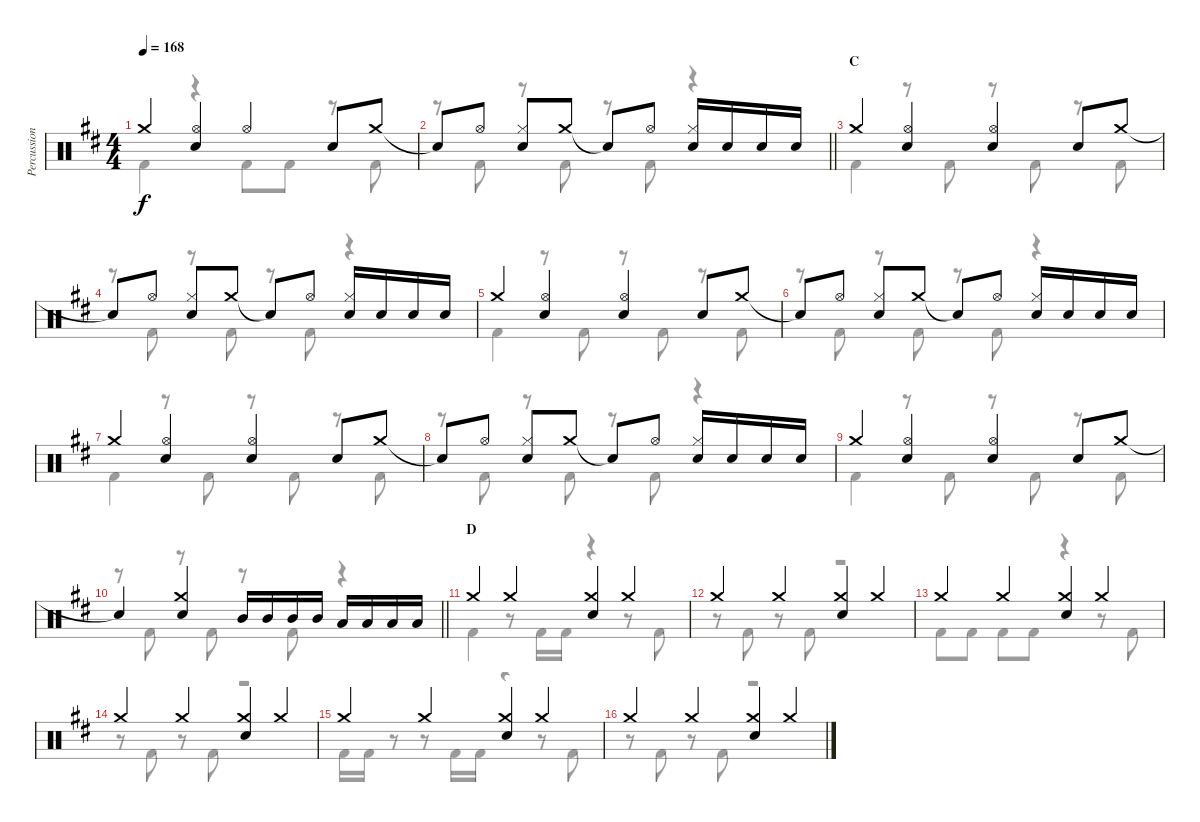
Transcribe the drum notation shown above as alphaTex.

\track ("Percussion" "Percussion") {instrument percussion}
\staff {score}
\articulation defaults
\voice
\ts (4 4)
\tempo 168
\clef neutral
\ks d "Crash medium (hit)".4{dy f}
("Hi-Hat (open)" "Snare (hit) 2").4 "Hi-Hat (open)".4 "Snare (hit) 2".8 "Crash medium (hit)".8 |
\barLineRight lightlight "Snare (hit)"{t}.8 "Hi-Hat (open)".8
("Hi-Hat (closed)" "Snare (hit) 2").8 "Crash medium (hit)".8 "Snare (hit)"{t}.8 "Hi-Hat (open)".8 ("Hi-Hat (closed)" "Snare (hit) 2").16 "Snare (hit) 2".16 "Snare (hit) 2".16 "Snare (hit) 2".16 |
\section ("" "C")
"Crash medium (hit)".4 ("Hi-Hat (open)" "Snare (hit) 2").4 ("Hi-Hat (open)" "Snare (hit) 2").4 "Snare (hit) 2".8 "Crash medium (hit)".8 |
"Snare (hit)"{t}.8 "Hi-Hat (open)".8 ("Hi-Hat (closed)" "Snare (hit) 2").8 "Crash medium (hit)".8 "Snare (hit)"{t}.8 "Hi-Hat (open)".8 ("Hi-Hat (closed)" "Snare (hit) 2").16 "Snare (hit) 2".16 "Snare (hit) 2".16 "Snare (hit) 2".16 |
"Crash medium (hit)".4 ("Hi-Hat (open)" "Snare (hit) 2").4 ("Hi-Hat (open)" "Snare (hit) 2").4 "Snare (hit) 2".8 "Crash medium (hit)".8 |
"Snare (hit)"{t}.8 "Hi-Hat (open)".8 ("Hi-Hat (closed)" "Snare (hit) 2").8 "Crash medium (hit)".8 "Snare (hit)"{t}.8 "Hi-Hat (open)".8 ("Hi-Hat (closed)" "Snare (hit) 2").16 "Snare (hit) 2".16 "Snare (hit) 2".16 "Snare (hit) 2".16 |
"Crash medium (hit)".4 ("Hi-Hat (open)" "Snare (hit) 2").4 ("Hi-Hat (open)" "Snare (hit) 2").4 "Snare (hit) 2".8 "Crash medium (hit)".8 |
"Snare (hit)"{t}.8 "Hi-Hat (open)".8 ("Hi-Hat (closed)" "Snare (hit) 2").8 "Crash medium (hit)".8 "Snare (hit)"{t}.8 "Hi-Hat (open)".8 ("Hi-Hat (closed)" "Snare (hit) 2").16 "Snare (hit) 2".16 "Snare (hit) 2".16 "Snare (hit) 2".16 |
"Crash medium (hit)".4 ("Hi-Hat (open)" "Snare (hit) 2").4 ("Hi-Hat (open)" "Snare (hit) 2").4 "Snare (hit) 2".8 "Crash medium (hit)".8 |
\barLineRight lightlight "Snare (hit)"{t}.4
("Crash medium (hit)" "Snare (hit) 2").4 "Mid Tom (hit)".16 "Mid Tom (hit)".16 "Mid Tom (hit)".16 "Mid Tom (hit)".16 "Low Tom (hit)".16 "Low Tom (hit)".16 "Low Tom (hit)".16 "Low Tom (hit)".16 |
\section ("" "D")
"Crash medium (hit)".4 "Crash medium (hit)".4 ("Crash medium (hit)" "Snare (hit) 2").4 "Crash medium (hit)".4 |
"Crash medium (hit)".4 "Crash medium (hit)".4 ("Crash medium (hit)" "Snare (hit) 2").4 "Crash medium (hit)".4 |
"Crash medium (hit)".4 "Crash medium (hit)".4 ("Crash medium (hit)" "Snare (hit) 2").4 "Crash medium (hit)".4 |
"Crash medium (hit)".4 "Crash medium (hit)".4 ("Crash medium (hit)" "Snare (hit) 2").4 "Crash medium (hit)".4 |
"Crash medium (hit)".4 "Crash medium (hit)".4 ("Crash medium (hit)" "Snare (hit) 2").4 "Crash medium (hit)".4 |
"Crash medium (hit)".4 "Crash medium (hit)".4 ("Crash medium (hit)" "Snare (hit) 2").4 "Crash medium (hit)".4
\voice
\clef neutral
\ottava regular
\simile none
\ks d "Kick (hit) 2".4{dy f}
r.4 "Kick (hit) 2".8 "Kick (hit) 2".8 r.8 "Kick (hit) 2".8 |
\barLineRight lightlight
r.8 "Kick (hit) 2".8 r.8 "Kick (hit) 2".8 r.8 "Kick (hit) 2".8 r.4 |
"Kick (hit) 2".4 r.8 "Kick (hit) 2".8 r.8 "Kick (hit) 2".8 r.8 "Kick (hit) 2".8 |
r.8 "Kick (hit) 2".8 r.8 "Kick (hit) 2".8 r.8 "Kick (hit) 2".8 r.4 |
"Kick (hit) 2".4 r.8 "Kick (hit) 2".8 r.8 "Kick (hit) 2".8 r.8 "Kick (hit) 2".8 |
r.8 "Kick (hit) 2".8 r.8 "Kick (hit) 2".8 r.8 "Kick (hit) 2".8 r.4 |
"Kick (hit) 2".4 r.8 "Kick (hit) 2".8 r.8 "Kick (hit) 2".8 r.8 "Kick (hit) 2".8 |
r.8 "Kick (hit) 2".8 r.8 "Kick (hit) 2".8 r.8 "Kick (hit) 2".8 r.4 |
"Kick (hit) 2".4 r.8 "Kick (hit) 2".8 r.8 "Kick (hit) 2".8 r.8 "Kick (hit) 2".8 |
\barLineRight lightlight
r.8 "Kick (hit) 2".8 r.8 "Kick (hit) 2".8 r.8 "Kick (hit) 2".8 r.4 |
"Kick (hit) 2".4 r.8 "Kick (hit) 2".16 "Kick (hit) 2".16 r.4 r.8 "Kick (hit) 2".8 |
r.8 "Kick (hit) 2".8 r.8 "Kick (hit) 2".8 r.2 |
"Kick (hit) 2".8 "Kick (hit) 2".8 "Kick (hit) 2".8 "Kick (hit) 2".8 r.4 r.8 "Kick (hit) 2".8 |
r.8 "Kick (hit) 2".8 r.8 "Kick (hit) 2".8 r.2 |
"Kick (hit) 2".16 "Kick (hit) 2".16 r.8 r.8 "Kick (hit) 2".16 "Kick (hit) 2".16 r.4 r.8 "Kick (hit) 2".8 |
r.8 "Kick (hit) 2".8 r.8 "Kick (hit) 2".8 r.2
